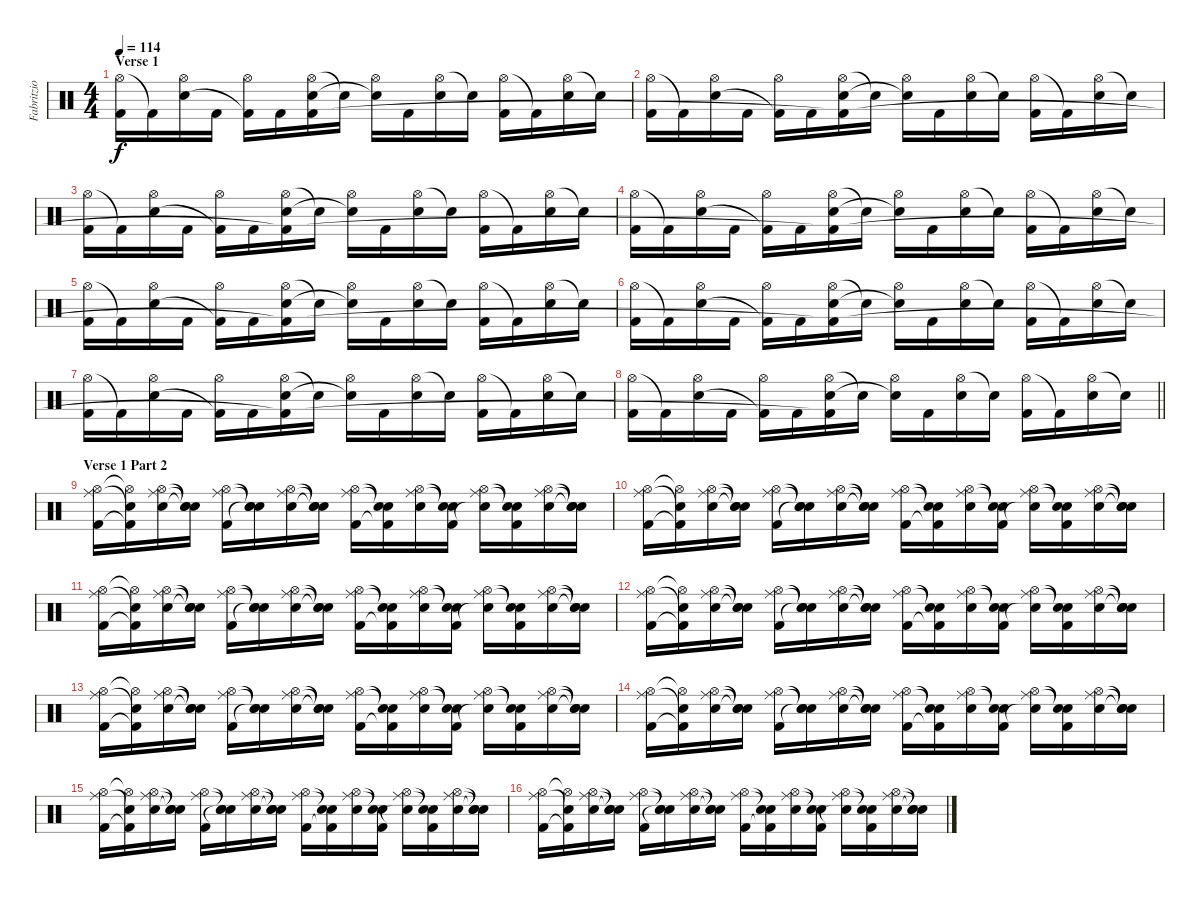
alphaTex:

\track ("Fabritzio Moretti" "Fabritzio ") {instrument percussion}
\staff {score}
\articulation defaults
\ts (4 4)
\section ("" "Verse 1")
\tempo 114
\clef neutral
\ks c
("Hi-Hat (open)" "Kick (hit) 2").16{dy f} "Kick (hit) 2"{t}.16 ("Hi-Hat (open)" "Snare (hit) 2").16 "Kick (hit) 2".16 ("Hi-Hat (open)" "Kick (hit) 2"{t}).16 "Kick (hit) 2".16 ("Hi-Hat (open)" "Snare (hit) 2" "Kick (hit) 2"{t}).16 "Snare (hit) 2"{t}.16 ("Hi-Hat (open)" "Snare (hit) 2"{t}).16 "Kick (hit) 2".16 ("Hi-Hat (open)" "Snare (hit) 2").16 "Snare (hit) 2"{t}.16 ("Hi-Hat (open)" "Kick (hit) 2").16 "Kick (hit) 2"{t}.16 ("Hi-Hat (open)" "Snare (hit) 2").16 "Snare (hit) 2"{t}.16 |
("Hi-Hat (open)" "Kick (hit) 2").16 "Kick (hit) 2"{t}.16 ("Hi-Hat (open)" "Snare (hit) 2").16 "Kick (hit) 2".16 ("Hi-Hat (open)" "Kick (hit) 2"{t}).16 "Kick (hit) 2".16 ("Hi-Hat (open)" "Snare (hit) 2" "Kick (hit) 2"{t}).16 "Snare (hit) 2"{t}.16 ("Hi-Hat (open)" "Snare (hit) 2"{t}).16 "Kick (hit) 2".16 ("Hi-Hat (open)" "Snare (hit) 2").16 "Snare (hit) 2"{t}.16 ("Hi-Hat (open)" "Kick (hit) 2").16 "Kick (hit) 2"{t}.16 ("Hi-Hat (open)" "Snare (hit) 2").16 "Snare (hit) 2"{t}.16 |
("Hi-Hat (open)" "Kick (hit) 2").16 "Kick (hit) 2"{t}.16 ("Hi-Hat (open)" "Snare (hit) 2").16 "Kick (hit) 2".16 ("Hi-Hat (open)" "Kick (hit) 2"{t}).16 "Kick (hit) 2".16 ("Hi-Hat (open)" "Snare (hit) 2" "Kick (hit) 2"{t}).16 "Snare (hit) 2"{t}.16 ("Hi-Hat (open)" "Snare (hit) 2"{t}).16 "Kick (hit) 2".16 ("Hi-Hat (open)" "Snare (hit) 2").16 "Snare (hit) 2"{t}.16 ("Hi-Hat (open)" "Kick (hit) 2").16 "Kick (hit) 2"{t}.16 ("Hi-Hat (open)" "Snare (hit) 2").16 "Snare (hit) 2"{t}.16 |
("Hi-Hat (open)" "Kick (hit) 2").16 "Kick (hit) 2"{t}.16 ("Hi-Hat (open)" "Snare (hit) 2").16 "Kick (hit) 2".16 ("Hi-Hat (open)" "Kick (hit) 2"{t}).16 "Kick (hit) 2".16 ("Hi-Hat (open)" "Snare (hit) 2" "Kick (hit) 2"{t}).16 "Snare (hit) 2"{t}.16 ("Hi-Hat (open)" "Snare (hit) 2"{t}).16 "Kick (hit) 2".16 ("Hi-Hat (open)" "Snare (hit) 2").16 "Snare (hit) 2"{t}.16 ("Hi-Hat (open)" "Kick (hit) 2").16 "Kick (hit) 2"{t}.16 ("Hi-Hat (open)" "Snare (hit) 2").16 "Snare (hit) 2"{t}.16 |
("Hi-Hat (open)" "Kick (hit) 2").16 "Kick (hit) 2"{t}.16 ("Hi-Hat (open)" "Snare (hit) 2").16 "Kick (hit) 2".16 ("Hi-Hat (open)" "Kick (hit) 2"{t}).16 "Kick (hit) 2".16 ("Hi-Hat (open)" "Snare (hit) 2" "Kick (hit) 2"{t}).16 "Snare (hit) 2"{t}.16 ("Hi-Hat (open)" "Snare (hit) 2"{t}).16 "Kick (hit) 2".16 ("Hi-Hat (open)" "Snare (hit) 2").16 "Snare (hit) 2"{t}.16 ("Hi-Hat (open)" "Kick (hit) 2").16 "Kick (hit) 2"{t}.16 ("Hi-Hat (open)" "Snare (hit) 2").16 "Snare (hit) 2"{t}.16 |
("Hi-Hat (open)" "Kick (hit) 2").16 "Kick (hit) 2"{t}.16 ("Hi-Hat (open)" "Snare (hit) 2").16 "Kick (hit) 2".16 ("Hi-Hat (open)" "Kick (hit) 2"{t}).16 "Kick (hit) 2".16 ("Hi-Hat (open)" "Snare (hit) 2" "Kick (hit) 2"{t}).16 "Snare (hit) 2"{t}.16 ("Hi-Hat (open)" "Snare (hit) 2"{t}).16 "Kick (hit) 2".16 ("Hi-Hat (open)" "Snare (hit) 2").16 "Snare (hit) 2"{t}.16 ("Hi-Hat (open)" "Kick (hit) 2").16 "Kick (hit) 2"{t}.16 ("Hi-Hat (open)" "Snare (hit) 2").16 "Snare (hit) 2"{t}.16 |
("Hi-Hat (open)" "Kick (hit) 2").16 "Kick (hit) 2"{t}.16 ("Hi-Hat (open)" "Snare (hit) 2").16 "Kick (hit) 2".16 ("Hi-Hat (open)" "Kick (hit) 2"{t}).16 "Kick (hit) 2".16 ("Hi-Hat (open)" "Snare (hit) 2" "Kick (hit) 2"{t}).16 "Snare (hit) 2"{t}.16 ("Hi-Hat (open)" "Snare (hit) 2"{t}).16 "Kick (hit) 2".16 ("Hi-Hat (open)" "Snare (hit) 2").16 "Snare (hit) 2"{t}.16 ("Hi-Hat (open)" "Kick (hit) 2").16 "Kick (hit) 2"{t}.16 ("Hi-Hat (open)" "Snare (hit) 2").16 "Snare (hit) 2"{t}.16 |
\barLineRight lightlight
("Hi-Hat (open)" "Kick (hit) 2").16 "Kick (hit) 2"{t}.16 ("Hi-Hat (open)" "Snare (hit) 2").16 "Kick (hit) 2".16 ("Hi-Hat (open)" "Kick (hit) 2"{t}).16 "Kick (hit) 2".16 ("Hi-Hat (open)" "Snare (hit) 2" "Kick (hit) 2"{t}).16 "Snare (hit) 2"{t}.16 ("Hi-Hat (open)" "Snare (hit) 2"{t}).16 "Kick (hit) 2".16 ("Hi-Hat (open)" "Snare (hit) 2").16 "Snare (hit) 2"{t}.16 ("Hi-Hat (open)" "Kick (hit) 2").16 "Kick (hit) 2"{t}.16 ("Hi-Hat (open)" "Snare (hit) 2").16 "Snare (hit) 2"{t}.16 |
\section ("" "Verse 1 Part 2")
("Hi-Hat (open)" "Ride (middle)" "Kick (hit) 2").16 ("Hi-Hat (open)"{t} "Snare (hit)"{t} "Kick (hit) 2"{t}).16 ("Hi-Hat (open)" "Ride (middle)" "Snare (hit) 2").16 ("Snare (hit)"{t} "Snare (hit)"{t} "Snare (hit)"{t}).16 ("Hi-Hat (open)" "Ride (middle)" "Kick (hit) 2").16 ("Snare (hit)"{t} "Snare (hit)"{t} "Snare (hit)"{t}).16 ("Hi-Hat (open)" "Ride (middle)" "Snare (hit) 2").16 ("Snare (hit)"{t} "Snare (hit)"{t} "Snare (hit)"{t}).16 ("Hi-Hat (open)" "Ride (middle)" "Kick (hit) 2").16 ("Snare (hit)"{t} "Snare (hit)"{t} "Kick (hit) 2"{t}).16 ("Hi-Hat (open)" "Ride (middle)" "Snare (hit) 2").16 ("Snare (hit)"{t} "Snare (hit)"{t} "Kick (hit) 2").16 ("Hi-Hat (open)" "Ride (middle)" "Snare (hit)"{t}).16 ("Snare (hit)"{t} "Snare (hit)"{t} "Kick (hit) 2").16 ("Hi-Hat (open)" "Ride (middle)" "Snare (hit) 2").16 ("Snare (hit)"{t} "Snare (hit)"{t} "Snare (hit)"{t}).16 |
("Hi-Hat (open)" "Ride (middle)" "Kick (hit) 2").16 ("Hi-Hat (open)"{t} "Snare (hit)"{t} "Kick (hit) 2"{t}).16 ("Hi-Hat (open)" "Ride (middle)" "Snare (hit) 2").16 ("Snare (hit)"{t} "Snare (hit)"{t} "Snare (hit)"{t}).16 ("Hi-Hat (open)" "Ride (middle)" "Kick (hit) 2").16 ("Snare (hit)"{t} "Snare (hit)"{t} "Snare (hit)"{t}).16 ("Hi-Hat (open)" "Ride (middle)" "Snare (hit) 2").16 ("Snare (hit)"{t} "Snare (hit)"{t} "Snare (hit)"{t}).16 ("Hi-Hat (open)" "Ride (middle)" "Kick (hit) 2").16 ("Snare (hit)"{t} "Snare (hit)"{t} "Kick (hit) 2"{t}).16 ("Hi-Hat (open)" "Ride (middle)" "Snare (hit) 2").16 ("Snare (hit)"{t} "Snare (hit)"{t} "Kick (hit) 2").16 ("Hi-Hat (open)" "Ride (middle)" "Snare (hit)"{t}).16 ("Snare (hit)"{t} "Snare (hit)"{t} "Kick (hit) 2").16 ("Hi-Hat (open)" "Ride (middle)" "Snare (hit) 2").16 ("Snare (hit)"{t} "Snare (hit)"{t} "Snare (hit)"{t}).16 |
("Hi-Hat (open)" "Ride (middle)" "Kick (hit) 2").16 ("Hi-Hat (open)"{t} "Snare (hit)"{t} "Kick (hit) 2"{t}).16 ("Hi-Hat (open)" "Ride (middle)" "Snare (hit) 2").16 ("Snare (hit)"{t} "Snare (hit)"{t} "Snare (hit)"{t}).16 ("Hi-Hat (open)" "Ride (middle)" "Kick (hit) 2").16 ("Snare (hit)"{t} "Snare (hit)"{t} "Snare (hit)"{t}).16 ("Hi-Hat (open)" "Ride (middle)" "Snare (hit) 2").16 ("Snare (hit)"{t} "Snare (hit)"{t} "Snare (hit)"{t}).16 ("Hi-Hat (open)" "Ride (middle)" "Kick (hit) 2").16 ("Snare (hit)"{t} "Snare (hit)"{t} "Kick (hit) 2"{t}).16 ("Hi-Hat (open)" "Ride (middle)" "Snare (hit) 2").16 ("Snare (hit)"{t} "Snare (hit)"{t} "Kick (hit) 2").16 ("Hi-Hat (open)" "Ride (middle)" "Snare (hit)"{t}).16 ("Snare (hit)"{t} "Snare (hit)"{t} "Kick (hit) 2").16 ("Hi-Hat (open)" "Ride (middle)" "Snare (hit) 2").16 ("Snare (hit)"{t} "Snare (hit)"{t} "Snare (hit)"{t}).16 |
("Hi-Hat (open)" "Ride (middle)" "Kick (hit) 2").16 ("Hi-Hat (open)"{t} "Snare (hit)"{t} "Kick (hit) 2"{t}).16 ("Hi-Hat (open)" "Ride (middle)" "Snare (hit) 2").16 ("Snare (hit)"{t} "Snare (hit)"{t} "Snare (hit)"{t}).16 ("Hi-Hat (open)" "Ride (middle)" "Kick (hit) 2").16 ("Snare (hit)"{t} "Snare (hit)"{t} "Snare (hit)"{t}).16 ("Hi-Hat (open)" "Ride (middle)" "Snare (hit) 2").16 ("Snare (hit)"{t} "Snare (hit)"{t} "Snare (hit)"{t}).16 ("Hi-Hat (open)" "Ride (middle)" "Kick (hit) 2").16 ("Snare (hit)"{t} "Snare (hit)"{t} "Kick (hit) 2"{t}).16 ("Hi-Hat (open)" "Ride (middle)" "Snare (hit) 2").16 ("Snare (hit)"{t} "Snare (hit)"{t} "Kick (hit) 2").16 ("Hi-Hat (open)" "Ride (middle)" "Snare (hit)"{t}).16 ("Snare (hit)"{t} "Snare (hit)"{t} "Kick (hit) 2").16 ("Hi-Hat (open)" "Ride (middle)" "Snare (hit) 2").16 ("Snare (hit)"{t} "Snare (hit)"{t} "Snare (hit)"{t}).16 |
("Hi-Hat (open)" "Ride (middle)" "Kick (hit) 2").16 ("Hi-Hat (open)"{t} "Snare (hit)"{t} "Kick (hit) 2"{t}).16 ("Hi-Hat (open)" "Ride (middle)" "Snare (hit) 2").16 ("Snare (hit)"{t} "Snare (hit)"{t} "Snare (hit)"{t}).16 ("Hi-Hat (open)" "Ride (middle)" "Kick (hit) 2").16 ("Snare (hit)"{t} "Snare (hit)"{t} "Snare (hit)"{t}).16 ("Hi-Hat (open)" "Ride (middle)" "Snare (hit) 2").16 ("Snare (hit)"{t} "Snare (hit)"{t} "Snare (hit)"{t}).16 ("Hi-Hat (open)" "Ride (middle)" "Kick (hit) 2").16 ("Snare (hit)"{t} "Snare (hit)"{t} "Kick (hit) 2"{t}).16 ("Hi-Hat (open)" "Ride (middle)" "Snare (hit) 2").16 ("Snare (hit)"{t} "Snare (hit)"{t} "Kick (hit) 2").16 ("Hi-Hat (open)" "Ride (middle)" "Snare (hit)"{t}).16 ("Snare (hit)"{t} "Snare (hit)"{t} "Kick (hit) 2").16 ("Hi-Hat (open)" "Ride (middle)" "Snare (hit) 2").16 ("Snare (hit)"{t} "Snare (hit)"{t} "Snare (hit)"{t}).16 |
("Hi-Hat (open)" "Ride (middle)" "Kick (hit) 2").16 ("Hi-Hat (open)"{t} "Snare (hit)"{t} "Kick (hit) 2"{t}).16 ("Hi-Hat (open)" "Ride (middle)" "Snare (hit) 2").16 ("Snare (hit)"{t} "Snare (hit)"{t} "Snare (hit)"{t}).16 ("Hi-Hat (open)" "Ride (middle)" "Kick (hit) 2").16 ("Snare (hit)"{t} "Snare (hit)"{t} "Snare (hit)"{t}).16 ("Hi-Hat (open)" "Ride (middle)" "Snare (hit) 2").16 ("Snare (hit)"{t} "Snare (hit)"{t} "Snare (hit)"{t}).16 ("Hi-Hat (open)" "Ride (middle)" "Kick (hit) 2").16 ("Snare (hit)"{t} "Snare (hit)"{t} "Kick (hit) 2"{t}).16 ("Hi-Hat (open)" "Ride (middle)" "Snare (hit) 2").16 ("Snare (hit)"{t} "Snare (hit)"{t} "Kick (hit) 2").16 ("Hi-Hat (open)" "Ride (middle)" "Snare (hit)"{t}).16 ("Snare (hit)"{t} "Snare (hit)"{t} "Kick (hit) 2").16 ("Hi-Hat (open)" "Ride (middle)" "Snare (hit) 2").16 ("Snare (hit)"{t} "Snare (hit)"{t} "Snare (hit)"{t}).16 |
("Hi-Hat (open)" "Ride (middle)" "Kick (hit) 2").16 ("Hi-Hat (open)"{t} "Snare (hit)"{t} "Kick (hit) 2"{t}).16 ("Hi-Hat (open)" "Ride (middle)" "Snare (hit) 2").16 ("Snare (hit)"{t} "Snare (hit)"{t} "Snare (hit)"{t}).16 ("Hi-Hat (open)" "Ride (middle)" "Kick (hit) 2").16 ("Snare (hit)"{t} "Snare (hit)"{t} "Snare (hit)"{t}).16 ("Hi-Hat (open)" "Ride (middle)" "Snare (hit) 2").16 ("Snare (hit)"{t} "Snare (hit)"{t} "Snare (hit)"{t}).16 ("Hi-Hat (open)" "Ride (middle)" "Kick (hit) 2").16 ("Snare (hit)"{t} "Snare (hit)"{t} "Kick (hit) 2"{t}).16 ("Hi-Hat (open)" "Ride (middle)" "Snare (hit) 2").16 ("Snare (hit)"{t} "Snare (hit)"{t} "Kick (hit) 2").16 ("Hi-Hat (open)" "Ride (middle)" "Snare (hit)"{t}).16 ("Snare (hit)"{t} "Snare (hit)"{t} "Kick (hit) 2").16 ("Hi-Hat (open)" "Ride (middle)" "Snare (hit) 2").16 ("Snare (hit)"{t} "Snare (hit)"{t} "Snare (hit)"{t}).16 |
("Hi-Hat (open)" "Ride (middle)" "Kick (hit) 2").16 ("Hi-Hat (open)"{t} "Snare (hit)"{t} "Kick (hit) 2"{t}).16 ("Hi-Hat (open)" "Ride (middle)" "Snare (hit) 2").16 ("Snare (hit)"{t} "Snare (hit)"{t} "Snare (hit)"{t}).16 ("Hi-Hat (open)" "Ride (middle)" "Kick (hit) 2").16 ("Snare (hit)"{t} "Snare (hit)"{t} "Snare (hit)"{t}).16 ("Hi-Hat (open)" "Ride (middle)" "Snare (hit) 2").16 ("Snare (hit)"{t} "Snare (hit)"{t} "Snare (hit)"{t}).16 ("Hi-Hat (open)" "Ride (middle)" "Kick (hit) 2").16 ("Snare (hit)"{t} "Snare (hit)"{t} "Kick (hit) 2"{t}).16 ("Hi-Hat (open)" "Ride (middle)" "Snare (hit) 2").16 ("Snare (hit)"{t} "Snare (hit)"{t} "Kick (hit) 2").16 ("Hi-Hat (open)" "Ride (middle)" "Snare (hit)"{t}).16 ("Snare (hit)"{t} "Snare (hit)"{t} "Kick (hit) 2").16 ("Hi-Hat (open)" "Ride (middle)" "Snare (hit) 2").16 ("Snare (hit)"{t} "Snare (hit)"{t} "Snare (hit)"{t}).16
